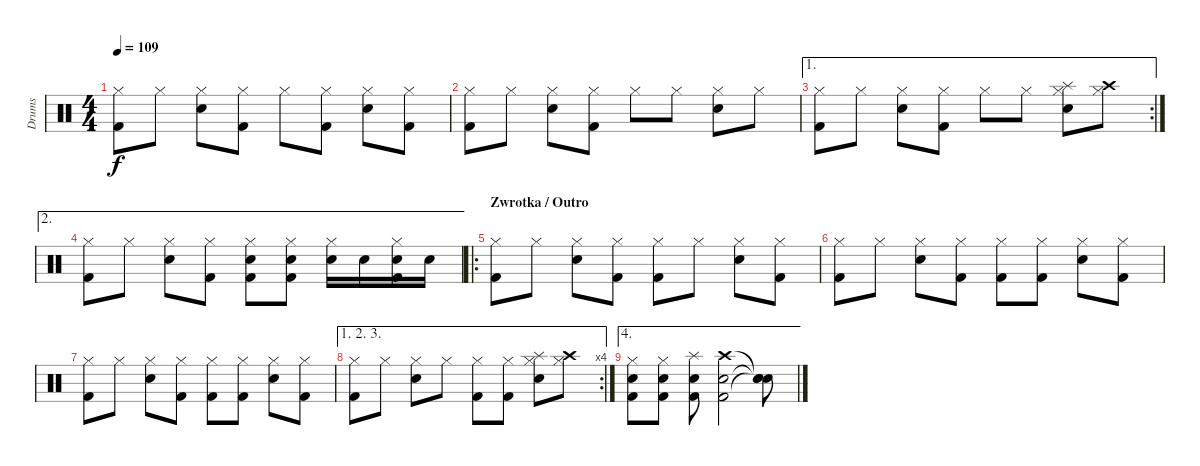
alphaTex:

\track ("Drums" "Drums") {instrument percussion}
\staff {score}
\articulation defaults
\ts (4 4)
\tempo 109
\clef neutral
\ks c
("Hi-Hat (closed)" "Kick (hit) 2").8{dy f} "Hi-Hat (closed)".8 ("Hi-Hat (closed)" "Snare (hit) 2").8 ("Hi-Hat (closed)" "Kick (hit) 2").8 "Hi-Hat (closed)".8 ("Hi-Hat (closed)" "Kick (hit) 2").8 ("Hi-Hat (closed)" "Snare (hit) 2").8 ("Hi-Hat (closed)" "Kick (hit) 2").8 |
("Hi-Hat (closed)" "Kick (hit) 2").8 "Hi-Hat (closed)".8 ("Hi-Hat (closed)" "Snare (hit) 2").8 ("Hi-Hat (closed)" "Kick (hit) 2").8 "Hi-Hat (closed)".8 "Hi-Hat (closed)".8 ("Hi-Hat (closed)" "Snare (hit) 2").8 "Hi-Hat (closed)".8 |
\ae 1
\rc 2
("Hi-Hat (closed)" "Kick (hit) 2").8 "Hi-Hat (closed)".8 ("Hi-Hat (closed)" "Snare (hit) 2").8 ("Hi-Hat (closed)" "Kick (hit) 2").8 "Hi-Hat (closed)".8 "Hi-Hat (closed)".8 ("Splash (hit)" "Hi-Hat (closed)" "Snare (hit) 2").8 ("Crash high (hit)" "Hi-Hat (closed)").8 |
\ae 2
("Hi-Hat (closed)" "Kick (hit) 2").8 "Hi-Hat (closed)".8 ("Hi-Hat (closed)" "Snare (hit) 2").8 ("Hi-Hat (closed)" "Kick (hit) 2").8 ("Hi-Hat (closed)" "Snare (hit) 2" "Kick (hit) 2").8 ("Hi-Hat (closed)" "Snare (hit) 2" "Kick (hit) 2").8 ("Hi-Hat (closed)" "Snare (hit) 2").16 "Snare (hit) 2".16 ("Hi-Hat (closed)" "Snare (hit) 2" "Kick (hit) 2").16 "Snare (hit) 2".16 |
\ro
\section ("" "Zwrotka / Outro")
("Hi-Hat (closed)" "Kick (hit) 2").8 "Hi-Hat (closed)".8 ("Hi-Hat (closed)" "Snare (hit) 2").8 ("Hi-Hat (closed)" "Kick (hit) 2").8 ("Hi-Hat (closed)" "Kick (hit) 2").8 "Hi-Hat (closed)".8 ("Hi-Hat (closed)" "Snare (hit) 2").8 ("Hi-Hat (closed)" "Kick (hit) 2").8 |
("Hi-Hat (closed)" "Kick (hit) 2").8 "Hi-Hat (closed)".8 ("Hi-Hat (closed)" "Snare (hit) 2").8 ("Hi-Hat (closed)" "Kick (hit) 2").8 ("Hi-Hat (closed)" "Kick (hit) 2").8 ("Hi-Hat (closed)" "Kick (hit) 2").8 ("Hi-Hat (closed)" "Snare (hit) 2").8 ("Hi-Hat (closed)" "Kick (hit) 2").8 |
("Hi-Hat (closed)" "Kick (hit) 2").8 "Hi-Hat (closed)".8 ("Hi-Hat (closed)" "Snare (hit) 2").8 ("Hi-Hat (closed)" "Kick (hit) 2").8 ("Hi-Hat (closed)" "Kick (hit) 2").8 ("Hi-Hat (closed)" "Kick (hit) 2").8 ("Hi-Hat (closed)" "Snare (hit) 2").8 ("Hi-Hat (closed)" "Kick (hit) 2").8 |
\ae (1 2 3)
\rc 4
("Hi-Hat (closed)" "Kick (hit) 2").8 "Hi-Hat (closed)".8 ("Hi-Hat (closed)" "Snare (hit) 2").8 "Hi-Hat (closed)".8 ("Hi-Hat (closed)" "Kick (hit) 2").8 ("Hi-Hat (closed)" "Kick (hit) 2").8 ("Splash (hit)" "Hi-Hat (closed)" "Snare (hit) 2").8 ("Crash high (hit)" "Hi-Hat (closed)").8 |
\ae 4
("Hi-Hat (closed)" "Snare (hit) 2" "Kick (hit) 2").8 ("Hi-Hat (closed)" "Snare (hit) 2" "Kick (hit) 2").8 ("Splash (hit)" "Snare (hit) 2" "Kick (hit) 2").8 ("Crash high (hit)" "Snare (hit) 2" "Kick (hit) 2").2 ("Snare (hit)"{t} "Snare (hit)"{t} "Snare (hit)"{t}).8
